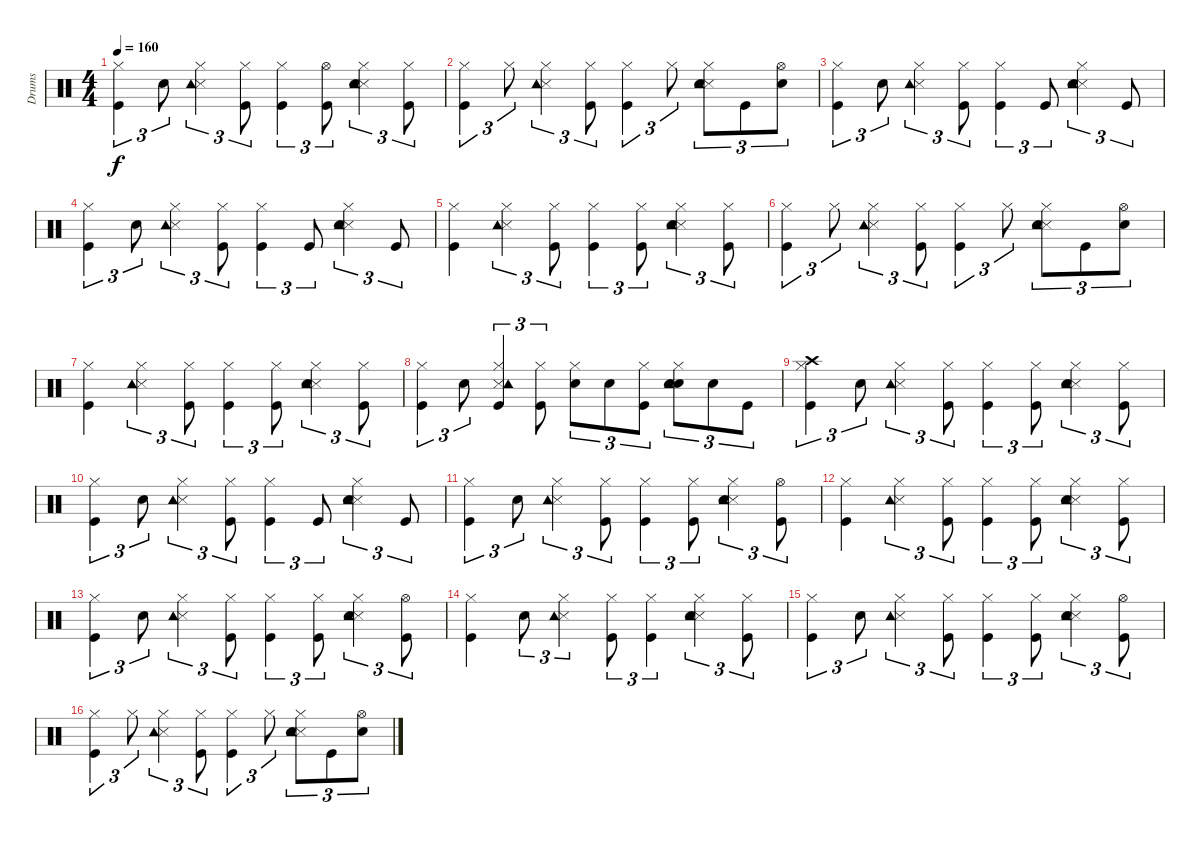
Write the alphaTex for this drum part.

\track ("Drums   " "Drums   ") {instrument percussion}
\staff {score}
\articulation defaults
\ts (4 4)
\tempo 160
\clef neutral
\ks c
("Kick (hit)" "Hi-Hat (closed)").4{tu (3 2) dy f} "Snare (hit) 2".8{tu (3 2)} ("Snare (side stick) 3" "Tambourine (hit)" "Hi-Hat (closed)").4{tu (3 2)} ("Kick (hit)" "Hi-Hat (closed)").8{tu (3 2)} ("Kick (hit)" "Hi-Hat (closed)").4{tu (3 2)} ("Kick (hit)" "Hi-Hat (open)").8{tu (3 2)} ("Snare (side stick) 3" "Hand Clap (hit)" "Tambourine (hit)" "Hi-Hat (closed)").4{tu (3 2)} ("Kick (hit)" "Hi-Hat (closed)").8{tu (3 2)} |
("Kick (hit)" "Hi-Hat (closed)").4{tu (3 2)} "Hi-Hat (closed)".8{tu (3 2)} ("Snare (side stick) 3" "Tambourine (hit)" "Hi-Hat (closed)").4{tu (3 2)} ("Kick (hit)" "Hi-Hat (closed)").8{tu (3 2)} ("Kick (hit)" "Hi-Hat (closed)").4{tu (3 2)} "Hi-Hat (closed)".8{tu (3 2)} ("Snare (side stick) 3" "Hand Clap (hit)" "Tambourine (hit)" "Hi-Hat (closed)").8{tu (3 2)} "Kick (hit)".8{tu (3 2)} ("Snare (hit) 2" "Hi-Hat (open)").8{tu (3 2)} |
("Kick (hit)" "Hi-Hat (closed)").4{tu (3 2)} "Snare (hit) 2".8{tu (3 2)} ("Snare (side stick) 3" "Tambourine (hit)" "Hi-Hat (closed)").4{tu (3 2)} ("Kick (hit)" "Hi-Hat (closed)").8{tu (3 2)} ("Kick (hit)" "Hi-Hat (closed)").4{tu (3 2)} "Kick (hit)".8{tu (3 2)} ("Snare (side stick) 3" "Hand Clap (hit)" "Tambourine (hit)" "Hi-Hat (closed)").4{tu (3 2)} "Kick (hit)".8{tu (3 2)} |
("Kick (hit)" "Hi-Hat (closed)").4{tu (3 2)} "Snare (hit) 2".8{tu (3 2)} ("Snare (side stick) 3" "Tambourine (hit)" "Hi-Hat (closed)").4{tu (3 2)} ("Kick (hit)" "Hi-Hat (closed)").8{tu (3 2)} ("Kick (hit)" "Hi-Hat (closed)").4{tu (3 2)} "Kick (hit)".8{tu (3 2)} ("Snare (side stick) 3" "Hand Clap (hit)" "Tambourine (hit)" "Hi-Hat (closed)").4{tu (3 2)} "Kick (hit)".8{tu (3 2)} |
("Kick (hit)" "Hi-Hat (closed)").4 ("Snare (side stick) 3" "Tambourine (hit)" "Hi-Hat (closed)").4{tu (3 2)} ("Kick (hit)" "Hi-Hat (closed)").8{tu (3 2)} ("Kick (hit)" "Hi-Hat (closed)").4{tu (3 2)} ("Kick (hit)" "Hi-Hat (closed)").8{tu (3 2)} ("Snare (side stick) 3" "Hand Clap (hit)" "Tambourine (hit)" "Hi-Hat (closed)").4{tu (3 2)} ("Kick (hit)" "Hi-Hat (closed)").8{tu (3 2)} |
("Kick (hit)" "Hi-Hat (closed)").4{tu (3 2)} "Hi-Hat (closed)".8{tu (3 2)} ("Snare (side stick) 3" "Tambourine (hit)" "Hi-Hat (closed)").4{tu (3 2)} ("Kick (hit)" "Hi-Hat (closed)").8{tu (3 2)} ("Kick (hit)" "Hi-Hat (closed)").4{tu (3 2)} "Hi-Hat (closed)".8{tu (3 2)} ("Snare (side stick) 3" "Hand Clap (hit)" "Tambourine (hit)" "Hi-Hat (closed)").8{tu (3 2)} "Kick (hit)".8{tu (3 2)} ("Snare (hit) 2" "Hi-Hat (open)").8{tu (3 2)} |
("Kick (hit)" "Hi-Hat (closed)").4 ("Snare (side stick) 3" "Tambourine (hit)" "Hi-Hat (closed)").4{tu (3 2)} ("Kick (hit)" "Hi-Hat (closed)").8{tu (3 2)} ("Kick (hit)" "Hi-Hat (closed)").4{tu (3 2)} ("Kick (hit)" "Hi-Hat (closed)").8{tu (3 2)} ("Snare (side stick) 3" "Hand Clap (hit)" "Tambourine (hit)" "Hi-Hat (closed)").4{tu (3 2)} ("Kick (hit)" "Hi-Hat (closed)").8{tu (3 2)} |
("Kick (hit)" "Hi-Hat (closed)").4{tu (3 2)} "Snare (hit) 2".8{tu (3 2)} ("Kick (hit)" "Snare (side stick) 3" "Tambourine (hit)" "Hi-Hat (closed)").4{tu (3 2)} ("Kick (hit)" "Hi-Hat (closed)").8{tu (3 2)} ("Snare (hit) 2" "Hi-Hat (closed)").8{tu (3 2)} "Snare (hit) 2".8{tu (3 2)} ("Kick (hit)" "Hi-Hat (closed)").8{tu (3 2)} ("Snare (hit) 2" "Hand Clap (hit)" "Tambourine (hit)" "Hi-Hat (closed)").8{tu (3 2)} "Snare (hit) 2".8{tu (3 2)} "Kick (hit)".8{tu (3 2)} |
("Kick (hit)" "Crash high (hit)" "Hi-Hat (closed)").4{tu (3 2)} "Snare (hit) 2".8{tu (3 2)} ("Snare (side stick) 3" "Tambourine (hit)" "Hi-Hat (closed)").4{tu (3 2)} ("Kick (hit)" "Hi-Hat (closed)").8{tu (3 2)} ("Kick (hit)" "Hi-Hat (closed)").4{tu (3 2)} ("Kick (hit)" "Hi-Hat (closed)").8{tu (3 2)} ("Snare (side stick) 3" "Hand Clap (hit)" "Tambourine (hit)" "Hi-Hat (closed)").4{tu (3 2)} ("Kick (hit)" "Hi-Hat (closed)").8{tu (3 2)} |
("Kick (hit)" "Hi-Hat (closed)").4{tu (3 2)} "Snare (hit) 2".8{tu (3 2)} ("Snare (side stick) 3" "Tambourine (hit)" "Hi-Hat (closed)").4{tu (3 2)} ("Kick (hit)" "Hi-Hat (closed)").8{tu (3 2)} ("Kick (hit)" "Hi-Hat (closed)").4{tu (3 2)} "Kick (hit)".8{tu (3 2)} ("Snare (side stick) 3" "Hand Clap (hit)" "Tambourine (hit)" "Hi-Hat (closed)").4{tu (3 2)} "Kick (hit)".8{tu (3 2)} |
("Kick (hit)" "Hi-Hat (closed)").4{tu (3 2)} "Snare (hit) 2".8{tu (3 2)} ("Snare (side stick) 3" "Tambourine (hit)" "Hi-Hat (closed)").4{tu (3 2)} ("Kick (hit)" "Hi-Hat (closed)").8{tu (3 2)} ("Kick (hit)" "Hi-Hat (closed)").4{tu (3 2)} ("Kick (hit)" "Hi-Hat (closed)").8{tu (3 2)} ("Snare (side stick) 3" "Hand Clap (hit)" "Tambourine (hit)" "Hi-Hat (closed)").4{tu (3 2)} ("Kick (hit)" "Hi-Hat (open)").8{tu (3 2)} |
("Kick (hit)" "Hi-Hat (closed)").4 ("Snare (side stick) 3" "Tambourine (hit)" "Hi-Hat (closed)").4{tu (3 2)} ("Kick (hit)" "Hi-Hat (closed)").8{tu (3 2)} ("Kick (hit)" "Hi-Hat (closed)").4{tu (3 2)} ("Kick (hit)" "Hi-Hat (closed)").8{tu (3 2)} ("Snare (side stick) 3" "Hand Clap (hit)" "Tambourine (hit)" "Hi-Hat (closed)").4{tu (3 2)} ("Kick (hit)" "Hi-Hat (closed)").8{tu (3 2)} |
("Kick (hit)" "Hi-Hat (closed)").4{tu (3 2)} "Snare (hit) 2".8{tu (3 2)} ("Snare (side stick) 3" "Tambourine (hit)" "Hi-Hat (closed)").4{tu (3 2)} ("Kick (hit)" "Hi-Hat (closed)").8{tu (3 2)} ("Kick (hit)" "Hi-Hat (closed)").4{tu (3 2)} ("Kick (hit)" "Hi-Hat (closed)").8{tu (3 2)} ("Snare (side stick) 3" "Hand Clap (hit)" "Tambourine (hit)" "Hi-Hat (closed)").4{tu (3 2)} ("Kick (hit)" "Hi-Hat (open)").8{tu (3 2)} |
("Kick (hit)" "Hi-Hat (closed)").4 "Snare (hit) 2".8{tu (3 2)} ("Snare (side stick) 3" "Tambourine (hit)" "Hi-Hat (closed)").4{tu (3 2)} ("Kick (hit)" "Hi-Hat (closed)").8{tu (3 2)} ("Kick (hit)" "Hi-Hat (closed)").4{tu (3 2)} ("Hi-Hat (closed)" "Snare (side stick) 3" "Tambourine (hit)" "Hand Clap (hit)").4{tu (3 2)} ("Kick (hit)" "Hi-Hat (closed)").8{tu (3 2)} |
("Kick (hit)" "Hi-Hat (closed)").4{tu (3 2)} "Snare (hit) 2".8{tu (3 2)} ("Snare (side stick) 3" "Tambourine (hit)" "Hi-Hat (closed)").4{tu (3 2)} ("Kick (hit)" "Hi-Hat (closed)").8{tu (3 2)} ("Kick (hit)" "Hi-Hat (closed)").4{tu (3 2)} ("Kick (hit)" "Hi-Hat (closed)").8{tu (3 2)} ("Snare (side stick) 3" "Hand Clap (hit)" "Tambourine (hit)" "Hi-Hat (closed)").4{tu (3 2)} ("Kick (hit)" "Hi-Hat (open)").8{tu (3 2)} |
("Kick (hit)" "Hi-Hat (closed)").4{tu (3 2)} "Hi-Hat (closed)".8{tu (3 2)} ("Snare (side stick) 3" "Tambourine (hit)" "Hi-Hat (closed)").4{tu (3 2)} ("Kick (hit)" "Hi-Hat (closed)").8{tu (3 2)} ("Kick (hit)" "Hi-Hat (closed)").4{tu (3 2)} "Hi-Hat (closed)".8{tu (3 2)} ("Snare (side stick) 3" "Hand Clap (hit)" "Tambourine (hit)" "Hi-Hat (closed)").8{tu (3 2)} "Kick (hit)".8{tu (3 2)} ("Snare (hit) 2" "Hi-Hat (open)").8{tu (3 2)}
